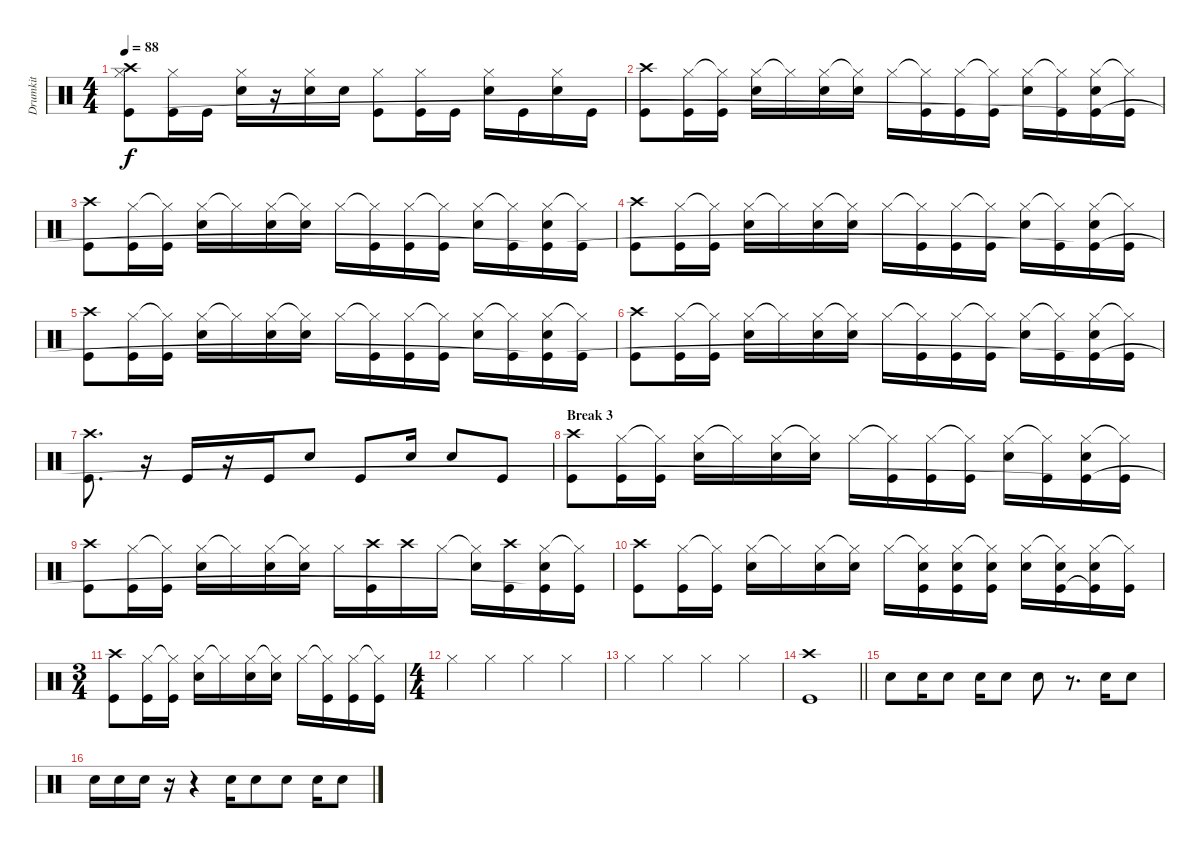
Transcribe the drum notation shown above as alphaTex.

\track ("Drumkit" "Drumkit") {instrument percussion}
\staff {score}
\articulation defaults
\ts (4 4)
\tempo 88
\clef neutral
\ks c
("Hi-Hat (closed)" "Crash high (hit)" "Kick (hit)").8{dy f} ("Hi-Hat (closed)" "Kick (hit)").16 "Kick (hit)".16 ("Hi-Hat (closed)" "Snare (hit) 2").16 r.16 ("Hi-Hat (closed)" "Snare (hit) 2").16 "Snare (hit) 2".16 ("Hi-Hat (closed)" "Kick (hit)").8 ("Hi-Hat (closed)" "Kick (hit)").16 "Kick (hit)".16 ("Hi-Hat (closed)" "Snare (hit) 2").16 "Kick (hit)".16 ("Hi-Hat (closed)" "Snare (hit) 2").16 "Kick (hit)".16 |
("Crash high (hit)" "Kick (hit)").8 ("Hi-Hat (closed)" "Kick (hit)").16 ("Hi-Hat (closed)"{t} "Kick (hit)").16 ("Hi-Hat (closed)" "Snare (hit) 2").16 "Hi-Hat (closed)"{t}.16 ("Hi-Hat (closed)" "Snare (hit) 2").16 ("Hi-Hat (closed)"{t} "Snare (hit) 2").16 "Hi-Hat (closed)".16 ("Hi-Hat (closed)"{t} "Kick (hit)").16 ("Hi-Hat (closed)" "Kick (hit)").16 ("Hi-Hat (closed)"{t} "Kick (hit)").16 ("Hi-Hat (closed)" "Snare (hit) 2").16 ("Hi-Hat (closed)"{t} "Kick (hit)").16 ("Hi-Hat (closed)" "Snare (hit) 2" "Kick (hit)"{t}).16 ("Hi-Hat (closed)"{t} "Kick (hit)").16 |
("Crash high (hit)" "Kick (hit)").8 ("Hi-Hat (closed)" "Kick (hit)").16 ("Hi-Hat (closed)"{t} "Kick (hit)").16 ("Hi-Hat (closed)" "Snare (hit) 2").16 "Hi-Hat (closed)"{t}.16 ("Hi-Hat (closed)" "Snare (hit) 2").16 ("Hi-Hat (closed)"{t} "Snare (hit) 2").16 "Hi-Hat (closed)".16 ("Hi-Hat (closed)"{t} "Kick (hit)").16 ("Hi-Hat (closed)" "Kick (hit)").16 ("Hi-Hat (closed)"{t} "Kick (hit)").16 ("Hi-Hat (closed)" "Snare (hit) 2").16 ("Hi-Hat (closed)"{t} "Kick (hit)").16 ("Hi-Hat (closed)" "Snare (hit) 2" "Kick (hit)"{t}).16 ("Hi-Hat (closed)"{t} "Kick (hit)").16 |
("Crash high (hit)" "Kick (hit)").8 ("Hi-Hat (closed)" "Kick (hit)").16 ("Hi-Hat (closed)"{t} "Kick (hit)").16 ("Hi-Hat (closed)" "Snare (hit) 2").16 "Hi-Hat (closed)"{t}.16 ("Hi-Hat (closed)" "Snare (hit) 2").16 ("Hi-Hat (closed)"{t} "Snare (hit) 2").16 "Hi-Hat (closed)".16 ("Hi-Hat (closed)"{t} "Kick (hit)").16 ("Hi-Hat (closed)" "Kick (hit)").16 ("Hi-Hat (closed)"{t} "Kick (hit)").16 ("Hi-Hat (closed)" "Snare (hit) 2").16 ("Hi-Hat (closed)"{t} "Kick (hit)").16 ("Hi-Hat (closed)" "Snare (hit) 2" "Kick (hit)"{t}).16 ("Hi-Hat (closed)"{t} "Kick (hit)").16 |
("Crash high (hit)" "Kick (hit)").8 ("Hi-Hat (closed)" "Kick (hit)").16 ("Hi-Hat (closed)"{t} "Kick (hit)").16 ("Hi-Hat (closed)" "Snare (hit) 2").16 "Hi-Hat (closed)"{t}.16 ("Hi-Hat (closed)" "Snare (hit) 2").16 ("Hi-Hat (closed)"{t} "Snare (hit) 2").16 "Hi-Hat (closed)".16 ("Hi-Hat (closed)"{t} "Kick (hit)").16 ("Hi-Hat (closed)" "Kick (hit)").16 ("Hi-Hat (closed)"{t} "Kick (hit)").16 ("Hi-Hat (closed)" "Snare (hit) 2").16 ("Hi-Hat (closed)"{t} "Kick (hit)").16 ("Hi-Hat (closed)" "Snare (hit) 2" "Kick (hit)"{t}).16 ("Hi-Hat (closed)"{t} "Kick (hit)").16 |
("Crash high (hit)" "Kick (hit)").8 ("Hi-Hat (closed)" "Kick (hit)").16 ("Hi-Hat (closed)"{t} "Kick (hit)").16 ("Hi-Hat (closed)" "Snare (hit) 2").16 "Hi-Hat (closed)"{t}.16 ("Hi-Hat (closed)" "Snare (hit) 2").16 ("Hi-Hat (closed)"{t} "Snare (hit) 2").16 "Hi-Hat (closed)".16 ("Hi-Hat (closed)"{t} "Kick (hit)").16 ("Hi-Hat (closed)" "Kick (hit)").16 ("Hi-Hat (closed)"{t} "Kick (hit)").16 ("Hi-Hat (closed)" "Snare (hit) 2").16 ("Hi-Hat (closed)"{t} "Kick (hit)").16 ("Hi-Hat (closed)" "Snare (hit) 2" "Kick (hit)"{t}).16 ("Hi-Hat (closed)"{t} "Kick (hit)").16 |
("Crash high (hit)" "Kick (hit)").8{d} r.16 "Kick (hit)".16 r.16 "Kick (hit)".16 "Snare (hit) 2".8 "Kick (hit)".8 "Snare (hit) 2".16 "Snare (hit) 2".8 "Kick (hit)".8 |
\section ("" "Break 3")
("Crash high (hit)" "Kick (hit)").8 ("Hi-Hat (closed)" "Kick (hit)").16 ("Hi-Hat (closed)"{t} "Kick (hit)").16 ("Hi-Hat (closed)" "Snare (hit) 2").16 "Hi-Hat (closed)"{t}.16 ("Hi-Hat (closed)" "Snare (hit) 2").16 ("Hi-Hat (closed)"{t} "Snare (hit) 2").16 "Hi-Hat (closed)".16 ("Hi-Hat (closed)"{t} "Kick (hit)").16 ("Hi-Hat (closed)" "Kick (hit)").16 ("Hi-Hat (closed)"{t} "Kick (hit)").16 ("Hi-Hat (closed)" "Snare (hit) 2").16 ("Hi-Hat (closed)"{t} "Kick (hit)").16 ("Hi-Hat (closed)" "Snare (hit) 2" "Kick (hit)"{t}).16 ("Hi-Hat (closed)"{t} "Kick (hit)").16 |
("Crash high (hit)" "Kick (hit)").8 ("Hi-Hat (closed)" "Kick (hit)").16 ("Hi-Hat (closed)"{t} "Kick (hit)").16 ("Hi-Hat (closed)" "Snare (hit) 2").16 "Hi-Hat (closed)"{t}.16 ("Hi-Hat (closed)" "Snare (hit) 2").16 ("Hi-Hat (closed)"{t} "Snare (hit) 2").16 "Hi-Hat (closed)".16 ("Crash high (hit)" "Kick (hit)").16 "Crash high (hit)".16 "Hi-Hat (closed)".16 ("Hi-Hat (closed)"{t} "Snare (hit) 2").16 ("Crash high (hit)" "Kick (hit)").16 ("Hi-Hat (closed)" "Snare (hit) 2" "Kick (hit)"{t}).16 ("Hi-Hat (closed)"{t} "Kick (hit)").16 |
("Crash high (hit)" "Kick (hit)").8 ("Hi-Hat (closed)" "Kick (hit)").16 ("Hi-Hat (closed)"{t} "Kick (hit)").16 ("Hi-Hat (closed)" "Snare (hit) 2").16 "Hi-Hat (closed)"{t}.16 ("Hi-Hat (closed)" "Snare (hit) 2").16 ("Hi-Hat (closed)"{t} "Snare (hit) 2").16 "Hi-Hat (closed)".16 ("Hi-Hat (closed)"{t} "Snare (hit) 2" "Kick (hit)").16 ("Hi-Hat (closed)" "Snare (hit) 2" "Kick (hit)").16 ("Hi-Hat (closed)"{t} "Snare (hit) 2" "Kick (hit)").16 ("Hi-Hat (closed)" "Snare (hit) 2").16 ("Hi-Hat (closed)"{t} "Snare (hit) 2" "Kick (hit)").16 ("Hi-Hat (closed)" "Snare (hit) 2" "Kick (hit)"{t}).16 ("Hi-Hat (closed)"{t} "Kick (hit)").16 |
\ts (3 4)
("Crash high (hit)" "Kick (hit)").8 ("Hi-Hat (closed)" "Kick (hit)").16 ("Hi-Hat (closed)"{t} "Kick (hit)").16 ("Hi-Hat (closed)" "Snare (hit) 2").16 "Hi-Hat (closed)"{t}.16 ("Hi-Hat (closed)" "Snare (hit) 2").16 ("Hi-Hat (closed)"{t} "Snare (hit) 2").16 "Hi-Hat (closed)".16 ("Hi-Hat (closed)"{t} "Kick (hit)").16 ("Hi-Hat (closed)" "Kick (hit)").16 ("Hi-Hat (closed)"{t} "Kick (hit)").16 |
\ts (4 4)
"Hi-Hat (closed)".4 "Hi-Hat (closed)".4 "Hi-Hat (closed)".4 "Hi-Hat (closed)".4 |
"Hi-Hat (closed)".4 "Hi-Hat (closed)".4 "Hi-Hat (closed)".4 "Hi-Hat (closed)".4 |
\barLineRight lightlight
("Crash high (hit)" "Kick (hit)").1 |
"Snare (hit) 2".8 "Snare (hit) 2".16 "Snare (hit) 2".8 "Snare (hit) 2".16 "Snare (hit) 2".8 "Snare (hit) 2".8 r.8{d} "Snare (hit) 2".16 "Snare (hit) 2".8 |
"Snare (hit) 2".16 "Snare (hit) 2".16 "Snare (hit) 2".16 r.16 r.4 "Snare (hit) 2".16 "Snare (hit) 2".8 "Snare (hit) 2".8 "Snare (hit) 2".16 "Snare (hit) 2".8
